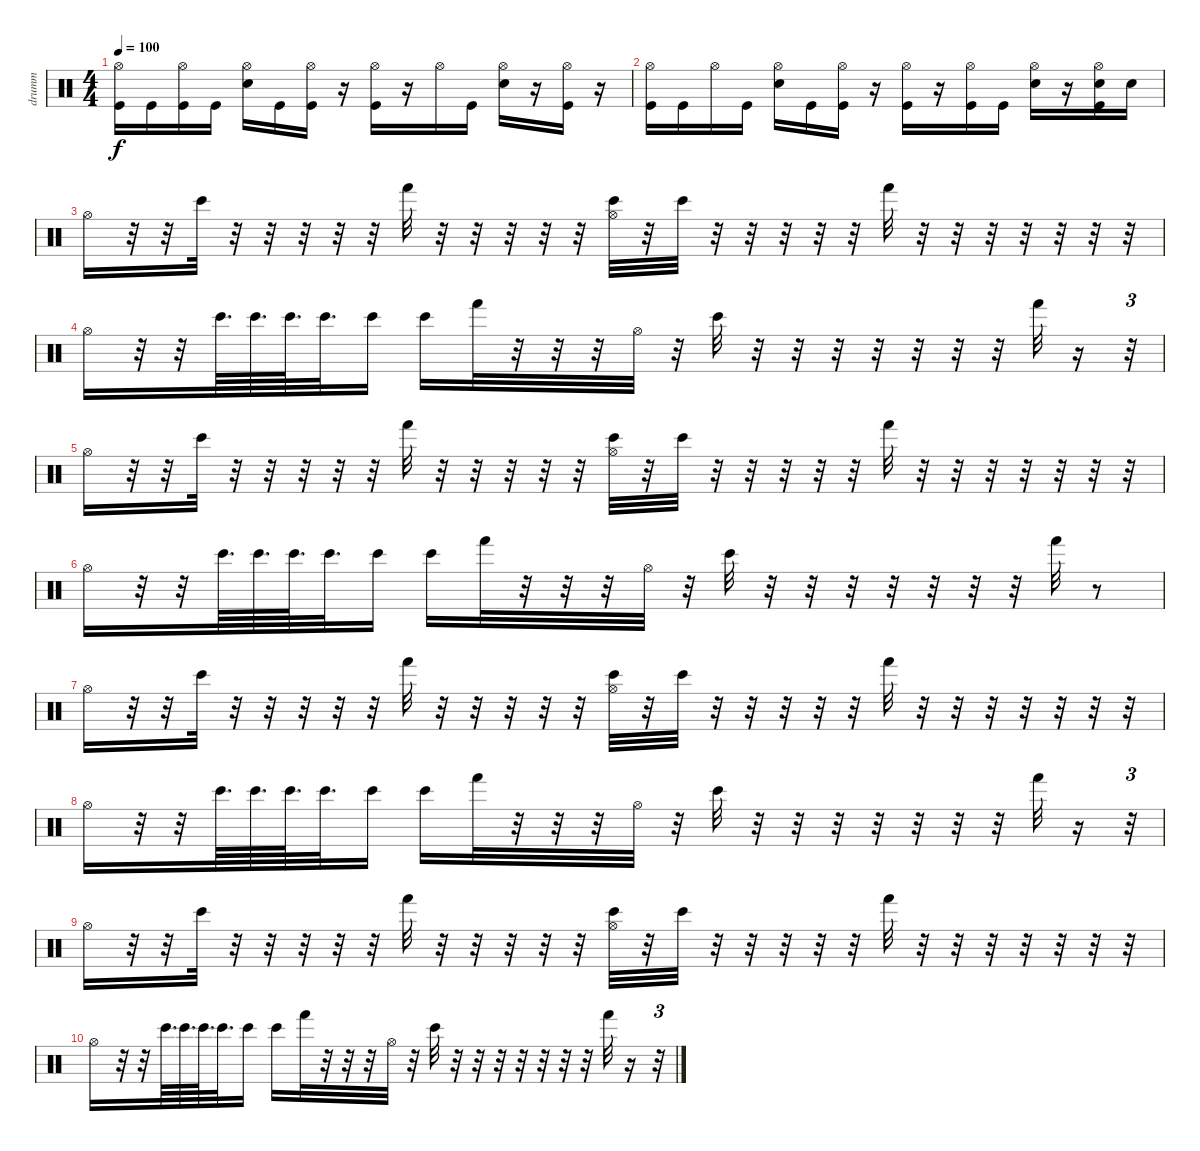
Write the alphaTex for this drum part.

\track ("drumm" "drumm") {instrument percussion}
\staff {score}
\articulation defaults
\ts (4 4)
\tempo 100
\clef neutral
\ks c
("Hi-Hat (open)" "Kick (hit)").16{dy f} "Kick (hit)".16 ("Hi-Hat (open)" "Kick (hit)").16 "Kick (hit)".16 ("Hi-Hat (open)" "Electric Snare (hit)").16 "Kick (hit)".16 ("Hi-Hat (open)" "Kick (hit)").16 r.16 ("Hi-Hat (open)" "Kick (hit)").16 r.16 "Hi-Hat (open)".16 "Kick (hit)".16 ("Hi-Hat (open)" "Electric Snare (hit)").16 r.16 ("Hi-Hat (open)" "Kick (hit)").16 r.16 |
("Hi-Hat (open)" "Kick (hit)").16 "Kick (hit)".16 "Hi-Hat (open)".16 "Kick (hit)".16 ("Hi-Hat (open)" "Electric Snare (hit)").16 "Kick (hit)".16 ("Hi-Hat (open)" "Kick (hit)").16 r.16 ("Hi-Hat (open)" "Kick (hit)").16 r.16 ("Hi-Hat (open)" "Kick (hit)").16 "Kick (hit)".16 ("Hi-Hat (open)" "Electric Snare (hit)").16 r.16 ("Hi-Hat (open)" "Electric Snare (hit)" "Kick (hit)").16 "Electric Snare (hit)".16 |
"Hi-Hat (open)".16 r.32 r.32 "Bongo High (hit)".32 r.32 r.32 r.32 r.32 r.32 "Hand (hit)".32 r.32 r.32 r.32 r.32 r.32 ("Hi-Hat (open)" "Bongo High (hit)").32 r.32 "Bongo High (hit)".32 r.32 r.32 r.32 r.32 r.32 "Hand (hit)".32 r.32 r.32 r.32 r.32 r.32 r.32 r.32 |
"Hi-Hat (open)".16 r.32 r.32 "Bongo High (hit)".64{d} "Bongo High (hit)".64{d} "Bongo High (hit)".64{d} "Bongo High (hit)".32{d} "Bongo High (hit)".16 "Bongo High (hit)".16 "Hand (hit)".32 r.32 r.32 r.32 "Hi-Hat (open)".32 r.32 "Bongo High (hit)".32 r.32 r.32 r.32 r.32 r.32 r.32 r.32 "Hand (hit)".32 r.16 r.32{tu (3 2)} |
"Hi-Hat (open)".16 r.32 r.32 "Bongo High (hit)".32 r.32 r.32 r.32 r.32 r.32 "Hand (hit)".32 r.32 r.32 r.32 r.32 r.32 ("Hi-Hat (open)" "Bongo High (hit)").32 r.32 "Bongo High (hit)".32 r.32 r.32 r.32 r.32 r.32 "Hand (hit)".32 r.32 r.32 r.32 r.32 r.32 r.32 r.32 |
"Hi-Hat (open)".16 r.32 r.32 "Bongo High (hit)".64{d} "Bongo High (hit)".64{d} "Bongo High (hit)".64{d} "Bongo High (hit)".32{d} "Bongo High (hit)".16 "Bongo High (hit)".16 "Hand (hit)".32 r.32 r.32 r.32 "Hi-Hat (open)".32 r.32 "Bongo High (hit)".32 r.32 r.32 r.32 r.32 r.32 r.32 r.32 "Hand (hit)".32 r.8 |
"Hi-Hat (open)".16 r.32 r.32 "Bongo High (hit)".32 r.32 r.32 r.32 r.32 r.32 "Hand (hit)".32 r.32 r.32 r.32 r.32 r.32 ("Hi-Hat (open)" "Bongo High (hit)").32 r.32 "Bongo High (hit)".32 r.32 r.32 r.32 r.32 r.32 "Hand (hit)".32 r.32 r.32 r.32 r.32 r.32 r.32 r.32 |
"Hi-Hat (open)".16 r.32 r.32 "Bongo High (hit)".64{d} "Bongo High (hit)".64{d} "Bongo High (hit)".64{d} "Bongo High (hit)".32{d} "Bongo High (hit)".16 "Bongo High (hit)".16 "Hand (hit)".32 r.32 r.32 r.32 "Hi-Hat (open)".32 r.32 "Bongo High (hit)".32 r.32 r.32 r.32 r.32 r.32 r.32 r.32 "Hand (hit)".32 r.16 r.32{tu (3 2)} |
"Hi-Hat (open)".16 r.32 r.32 "Bongo High (hit)".32 r.32 r.32 r.32 r.32 r.32 "Hand (hit)".32 r.32 r.32 r.32 r.32 r.32 ("Hi-Hat (open)" "Bongo High (hit)").32 r.32 "Bongo High (hit)".32 r.32 r.32 r.32 r.32 r.32 "Hand (hit)".32 r.32 r.32 r.32 r.32 r.32 r.32 r.32 |
"Hi-Hat (open)".16 r.32 r.32 "Bongo High (hit)".64{d} "Bongo High (hit)".64{d} "Bongo High (hit)".64{d} "Bongo High (hit)".32{d} "Bongo High (hit)".16 "Bongo High (hit)".16 "Hand (hit)".32 r.32 r.32 r.32 "Hi-Hat (open)".32 r.32 "Bongo High (hit)".32 r.32 r.32 r.32 r.32 r.32 r.32 r.32 "Hand (hit)".32 r.16 r.32{tu (3 2)}
